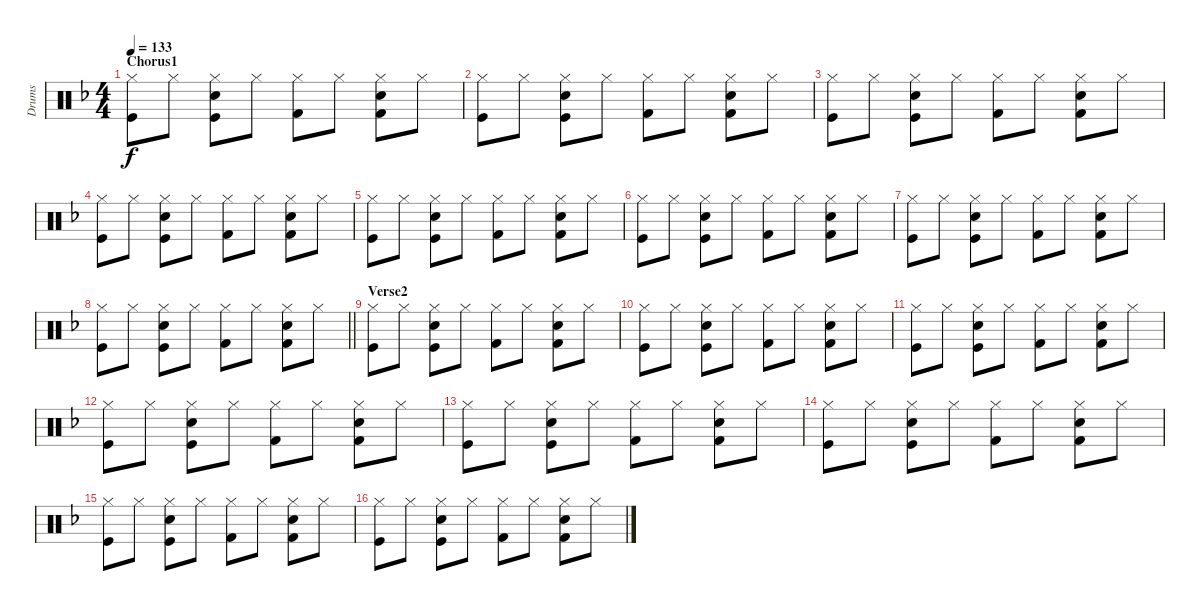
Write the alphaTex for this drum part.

\track ("Drums" "Drums") {instrument percussion}
\staff {score}
\articulation defaults
\ts (4 4)
\section ("" "Chorus1")
\tempo 133
\clef neutral
\ks f
("Hi-Hat (closed)" "Kick (hit)").8{dy f} "Hi-Hat (closed)".8 ("Hi-Hat (closed)" "Kick (hit)" "Electric Snare (hit)").8 "Hi-Hat (closed)".8 ("Hi-Hat (closed)" "Kick (hit) 2").8 "Hi-Hat (closed)".8 ("Kick (hit) 2" "Hi-Hat (closed)" "Electric Snare (hit)").8 "Hi-Hat (closed)".8 |
("Hi-Hat (closed)" "Kick (hit)").8 "Hi-Hat (closed)".8 ("Hi-Hat (closed)" "Kick (hit)" "Electric Snare (hit)").8 "Hi-Hat (closed)".8 ("Hi-Hat (closed)" "Kick (hit) 2").8 "Hi-Hat (closed)".8 ("Kick (hit) 2" "Hi-Hat (closed)" "Electric Snare (hit)").8 "Hi-Hat (closed)".8 |
("Hi-Hat (closed)" "Kick (hit)").8 "Hi-Hat (closed)".8 ("Hi-Hat (closed)" "Kick (hit)" "Electric Snare (hit)").8 "Hi-Hat (closed)".8 ("Hi-Hat (closed)" "Kick (hit) 2").8 "Hi-Hat (closed)".8 ("Kick (hit) 2" "Hi-Hat (closed)" "Electric Snare (hit)").8 "Hi-Hat (closed)".8 |
("Hi-Hat (closed)" "Kick (hit)").8 "Hi-Hat (closed)".8 ("Hi-Hat (closed)" "Kick (hit)" "Electric Snare (hit)").8 "Hi-Hat (closed)".8 ("Hi-Hat (closed)" "Kick (hit) 2").8 "Hi-Hat (closed)".8 ("Kick (hit) 2" "Hi-Hat (closed)" "Electric Snare (hit)").8 "Hi-Hat (closed)".8 |
("Hi-Hat (closed)" "Kick (hit)").8 "Hi-Hat (closed)".8 ("Hi-Hat (closed)" "Kick (hit)" "Electric Snare (hit)").8 "Hi-Hat (closed)".8 ("Hi-Hat (closed)" "Kick (hit) 2").8 "Hi-Hat (closed)".8 ("Kick (hit) 2" "Hi-Hat (closed)" "Electric Snare (hit)").8 "Hi-Hat (closed)".8 |
("Hi-Hat (closed)" "Kick (hit)").8 "Hi-Hat (closed)".8 ("Hi-Hat (closed)" "Kick (hit)" "Electric Snare (hit)").8 "Hi-Hat (closed)".8 ("Hi-Hat (closed)" "Kick (hit) 2").8 "Hi-Hat (closed)".8 ("Kick (hit) 2" "Hi-Hat (closed)" "Electric Snare (hit)").8 "Hi-Hat (closed)".8 |
("Hi-Hat (closed)" "Kick (hit)").8 "Hi-Hat (closed)".8 ("Hi-Hat (closed)" "Kick (hit)" "Electric Snare (hit)").8 "Hi-Hat (closed)".8 ("Hi-Hat (closed)" "Kick (hit) 2").8 "Hi-Hat (closed)".8 ("Kick (hit) 2" "Hi-Hat (closed)" "Electric Snare (hit)").8 "Hi-Hat (closed)".8 |
\barLineRight lightlight
("Hi-Hat (closed)" "Kick (hit)").8 "Hi-Hat (closed)".8 ("Hi-Hat (closed)" "Kick (hit)" "Electric Snare (hit)").8 "Hi-Hat (closed)".8 ("Hi-Hat (closed)" "Kick (hit) 2").8 "Hi-Hat (closed)".8 ("Kick (hit) 2" "Hi-Hat (closed)" "Electric Snare (hit)").8 "Hi-Hat (closed)".8 |
\section ("" "Verse2")
("Hi-Hat (closed)" "Kick (hit)").8 "Hi-Hat (closed)".8 ("Hi-Hat (closed)" "Kick (hit)" "Electric Snare (hit)").8 "Hi-Hat (closed)".8 ("Hi-Hat (closed)" "Kick (hit) 2").8 "Hi-Hat (closed)".8 ("Kick (hit) 2" "Hi-Hat (closed)" "Electric Snare (hit)").8 "Hi-Hat (closed)".8 |
("Hi-Hat (closed)" "Kick (hit)").8 "Hi-Hat (closed)".8 ("Hi-Hat (closed)" "Kick (hit)" "Electric Snare (hit)").8 "Hi-Hat (closed)".8 ("Hi-Hat (closed)" "Kick (hit) 2").8 "Hi-Hat (closed)".8 ("Kick (hit) 2" "Hi-Hat (closed)" "Electric Snare (hit)").8 "Hi-Hat (closed)".8 |
("Hi-Hat (closed)" "Kick (hit)").8 "Hi-Hat (closed)".8 ("Hi-Hat (closed)" "Kick (hit)" "Electric Snare (hit)").8 "Hi-Hat (closed)".8 ("Hi-Hat (closed)" "Kick (hit) 2").8 "Hi-Hat (closed)".8 ("Kick (hit) 2" "Hi-Hat (closed)" "Electric Snare (hit)").8 "Hi-Hat (closed)".8 |
("Hi-Hat (closed)" "Kick (hit)").8 "Hi-Hat (closed)".8 ("Hi-Hat (closed)" "Kick (hit)" "Electric Snare (hit)").8 "Hi-Hat (closed)".8 ("Hi-Hat (closed)" "Kick (hit) 2").8 "Hi-Hat (closed)".8 ("Kick (hit) 2" "Hi-Hat (closed)" "Electric Snare (hit)").8 "Hi-Hat (closed)".8 |
("Hi-Hat (closed)" "Kick (hit)").8 "Hi-Hat (closed)".8 ("Hi-Hat (closed)" "Kick (hit)" "Electric Snare (hit)").8 "Hi-Hat (closed)".8 ("Hi-Hat (closed)" "Kick (hit) 2").8 "Hi-Hat (closed)".8 ("Kick (hit) 2" "Hi-Hat (closed)" "Electric Snare (hit)").8 "Hi-Hat (closed)".8 |
("Hi-Hat (closed)" "Kick (hit)").8 "Hi-Hat (closed)".8 ("Hi-Hat (closed)" "Kick (hit)" "Electric Snare (hit)").8 "Hi-Hat (closed)".8 ("Hi-Hat (closed)" "Kick (hit) 2").8 "Hi-Hat (closed)".8 ("Kick (hit) 2" "Hi-Hat (closed)" "Electric Snare (hit)").8 "Hi-Hat (closed)".8 |
("Hi-Hat (closed)" "Kick (hit)").8 "Hi-Hat (closed)".8 ("Hi-Hat (closed)" "Kick (hit)" "Electric Snare (hit)").8 "Hi-Hat (closed)".8 ("Hi-Hat (closed)" "Kick (hit) 2").8 "Hi-Hat (closed)".8 ("Kick (hit) 2" "Hi-Hat (closed)" "Electric Snare (hit)").8 "Hi-Hat (closed)".8 |
("Hi-Hat (closed)" "Kick (hit)").8 "Hi-Hat (closed)".8 ("Hi-Hat (closed)" "Kick (hit)" "Electric Snare (hit)").8 "Hi-Hat (closed)".8 ("Hi-Hat (closed)" "Kick (hit) 2").8 "Hi-Hat (closed)".8 ("Kick (hit) 2" "Hi-Hat (closed)" "Electric Snare (hit)").8 "Hi-Hat (closed)".8
